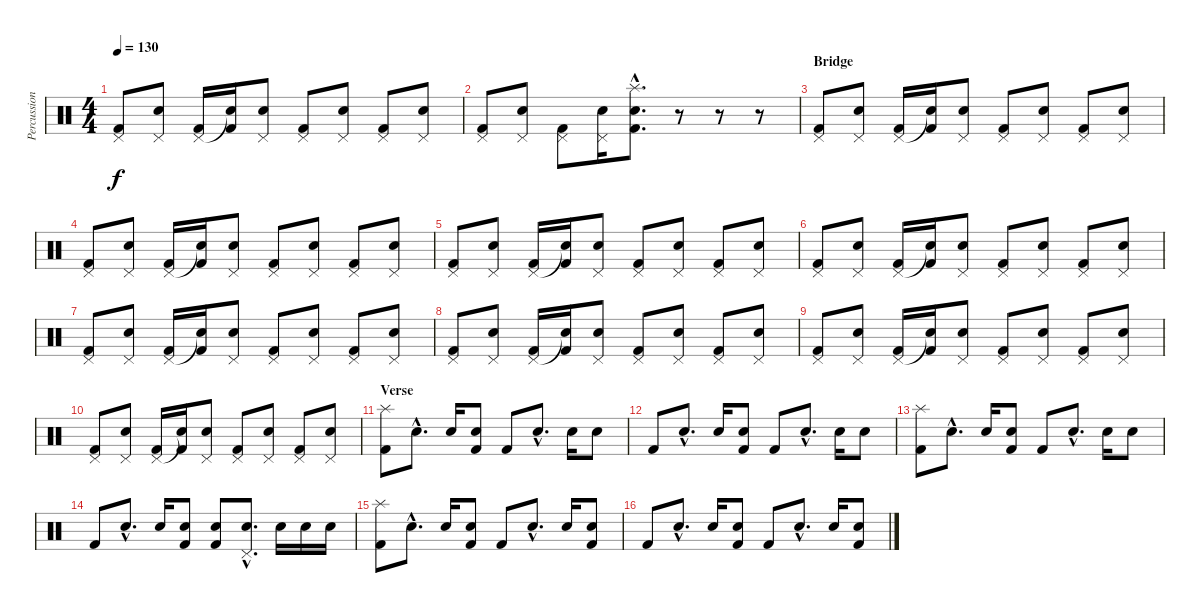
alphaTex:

\track ("Percussion" "Percussion") {instrument percussion}
\staff {score}
\articulation defaults
\ts (4 4)
\tempo 130
\clef neutral
\ks c
("Pedal Hi-Hat (hit)" "Kick (hit) 2").8{dy f} ("Pedal Hi-Hat (hit)" "Electric Snare (hit)").8 ("Pedal Hi-Hat (hit)" "Kick (hit) 2").16 ("Snare (hit)"{t} "Kick (hit) 2").16 ("Pedal Hi-Hat (hit)" "Electric Snare (hit)").8 ("Pedal Hi-Hat (hit)" "Kick (hit) 2").8 ("Pedal Hi-Hat (hit)" "Electric Snare (hit)").8 ("Pedal Hi-Hat (hit)" "Kick (hit) 2").8 ("Pedal Hi-Hat (hit)" "Electric Snare (hit)").8 |
("Pedal Hi-Hat (hit)" "Kick (hit) 2").8 ("Pedal Hi-Hat (hit)" "Electric Snare (hit)").8 ("Pedal Hi-Hat (hit)" "Kick (hit) 2").8 ("Pedal Hi-Hat (hit)" "Electric Snare (hit)").16 ("Splash (hit)"{hac} "Electric Snare (hit)"{hac} "Kick (hit) 2"{hac}).8{d} r.8 r.8 r.8 |
\section ("" "Bridge")
("Pedal Hi-Hat (hit)" "Kick (hit) 2").8 ("Pedal Hi-Hat (hit)" "Electric Snare (hit)").8 ("Pedal Hi-Hat (hit)" "Kick (hit) 2").16 ("Snare (hit)"{t} "Kick (hit) 2").16 ("Pedal Hi-Hat (hit)" "Electric Snare (hit)").8 ("Pedal Hi-Hat (hit)" "Kick (hit) 2").8 ("Pedal Hi-Hat (hit)" "Electric Snare (hit)").8 ("Pedal Hi-Hat (hit)" "Kick (hit) 2").8 ("Pedal Hi-Hat (hit)" "Electric Snare (hit)").8 |
("Pedal Hi-Hat (hit)" "Kick (hit) 2").8 ("Pedal Hi-Hat (hit)" "Electric Snare (hit)").8 ("Pedal Hi-Hat (hit)" "Kick (hit) 2").16 ("Snare (hit)"{t} "Kick (hit) 2").16 ("Pedal Hi-Hat (hit)" "Electric Snare (hit)").8 ("Pedal Hi-Hat (hit)" "Kick (hit) 2").8 ("Pedal Hi-Hat (hit)" "Electric Snare (hit)").8 ("Pedal Hi-Hat (hit)" "Kick (hit) 2").8 ("Pedal Hi-Hat (hit)" "Electric Snare (hit)").8 |
("Pedal Hi-Hat (hit)" "Kick (hit) 2").8 ("Pedal Hi-Hat (hit)" "Electric Snare (hit)").8 ("Pedal Hi-Hat (hit)" "Kick (hit) 2").16 ("Snare (hit)"{t} "Kick (hit) 2").16 ("Pedal Hi-Hat (hit)" "Electric Snare (hit)").8 ("Pedal Hi-Hat (hit)" "Kick (hit) 2").8 ("Pedal Hi-Hat (hit)" "Electric Snare (hit)").8 ("Pedal Hi-Hat (hit)" "Kick (hit) 2").8 ("Pedal Hi-Hat (hit)" "Electric Snare (hit)").8 |
("Pedal Hi-Hat (hit)" "Kick (hit) 2").8 ("Pedal Hi-Hat (hit)" "Electric Snare (hit)").8 ("Pedal Hi-Hat (hit)" "Kick (hit) 2").16 ("Snare (hit)"{t} "Kick (hit) 2").16 ("Pedal Hi-Hat (hit)" "Electric Snare (hit)").8 ("Pedal Hi-Hat (hit)" "Kick (hit) 2").8 ("Pedal Hi-Hat (hit)" "Electric Snare (hit)").8 ("Pedal Hi-Hat (hit)" "Kick (hit) 2").8 ("Pedal Hi-Hat (hit)" "Electric Snare (hit)").8 |
("Pedal Hi-Hat (hit)" "Kick (hit) 2").8 ("Pedal Hi-Hat (hit)" "Electric Snare (hit)").8 ("Pedal Hi-Hat (hit)" "Kick (hit) 2").16 ("Snare (hit)"{t} "Kick (hit) 2").16 ("Pedal Hi-Hat (hit)" "Electric Snare (hit)").8 ("Pedal Hi-Hat (hit)" "Kick (hit) 2").8 ("Pedal Hi-Hat (hit)" "Electric Snare (hit)").8 ("Pedal Hi-Hat (hit)" "Kick (hit) 2").8 ("Pedal Hi-Hat (hit)" "Electric Snare (hit)").8 |
("Pedal Hi-Hat (hit)" "Kick (hit) 2").8 ("Pedal Hi-Hat (hit)" "Electric Snare (hit)").8 ("Pedal Hi-Hat (hit)" "Kick (hit) 2").16 ("Snare (hit)"{t} "Kick (hit) 2").16 ("Pedal Hi-Hat (hit)" "Electric Snare (hit)").8 ("Pedal Hi-Hat (hit)" "Kick (hit) 2").8 ("Pedal Hi-Hat (hit)" "Electric Snare (hit)").8 ("Pedal Hi-Hat (hit)" "Kick (hit) 2").8 ("Pedal Hi-Hat (hit)" "Electric Snare (hit)").8 |
("Pedal Hi-Hat (hit)" "Kick (hit) 2").8 ("Pedal Hi-Hat (hit)" "Electric Snare (hit)").8 ("Pedal Hi-Hat (hit)" "Kick (hit) 2").16 ("Snare (hit)"{t} "Kick (hit) 2").16 ("Pedal Hi-Hat (hit)" "Electric Snare (hit)").8 ("Pedal Hi-Hat (hit)" "Kick (hit) 2").8 ("Pedal Hi-Hat (hit)" "Electric Snare (hit)").8 ("Pedal Hi-Hat (hit)" "Kick (hit) 2").8 ("Pedal Hi-Hat (hit)" "Electric Snare (hit)").8 |
("Pedal Hi-Hat (hit)" "Kick (hit) 2").8 ("Pedal Hi-Hat (hit)" "Electric Snare (hit)").8 ("Pedal Hi-Hat (hit)" "Kick (hit) 2").16 ("Snare (hit)"{t} "Kick (hit) 2").16 ("Pedal Hi-Hat (hit)" "Electric Snare (hit)").8 ("Pedal Hi-Hat (hit)" "Kick (hit) 2").8 ("Pedal Hi-Hat (hit)" "Electric Snare (hit)").8 ("Pedal Hi-Hat (hit)" "Kick (hit) 2").8 ("Pedal Hi-Hat (hit)" "Electric Snare (hit)").8 |
\section ("" "Verse")
("Splash (hit)" "Kick (hit) 2").8 "Electric Snare (hit)"{hac}.8{d} "Electric Snare (hit)".16 ("Electric Snare (hit)" "Kick (hit) 2").8 "Kick (hit) 2".8 "Electric Snare (hit)"{hac}.8{d} "Electric Snare (hit)".16 "Electric Snare (hit)".8 |
"Kick (hit) 2".8 "Electric Snare (hit)"{hac}.8{d} "Electric Snare (hit)".16 ("Electric Snare (hit)" "Kick (hit) 2").8 "Kick (hit) 2".8 "Electric Snare (hit)"{hac}.8{d} "Electric Snare (hit)".16 "Electric Snare (hit)".8 |
("Splash (hit)" "Kick (hit) 2").8 "Electric Snare (hit)"{hac}.8{d} "Electric Snare (hit)".16 ("Electric Snare (hit)" "Kick (hit) 2").8 "Kick (hit) 2".8 "Electric Snare (hit)"{hac}.8{d} "Electric Snare (hit)".16 "Electric Snare (hit)".8 |
"Kick (hit) 2".8 "Electric Snare (hit)"{hac}.8{d} "Electric Snare (hit)".16 ("Electric Snare (hit)" "Kick (hit) 2").8 ("Electric Snare (hit)" "Kick (hit) 2").8 ("Pedal Hi-Hat (hit)"{hac} "Electric Snare (hit)"{hac}).8{d} "Electric Snare (hit)".16 "Electric Snare (hit)".16 "Electric Snare (hit)".16 |
("Splash (hit)" "Kick (hit) 2").8 "Electric Snare (hit)"{hac}.8{d} "Electric Snare (hit)".16 ("Electric Snare (hit)" "Kick (hit) 2").8 "Kick (hit) 2".8 "Electric Snare (hit)"{hac}.8{d} "Electric Snare (hit)".16 ("Electric Snare (hit)" "Kick (hit) 2").8 |
"Kick (hit) 2".8 "Electric Snare (hit)"{hac}.8{d} "Electric Snare (hit)".16 ("Electric Snare (hit)" "Kick (hit) 2").8 "Kick (hit) 2".8 "Electric Snare (hit)"{hac}.8{d} "Electric Snare (hit)".16 ("Electric Snare (hit)" "Kick (hit) 2").8
